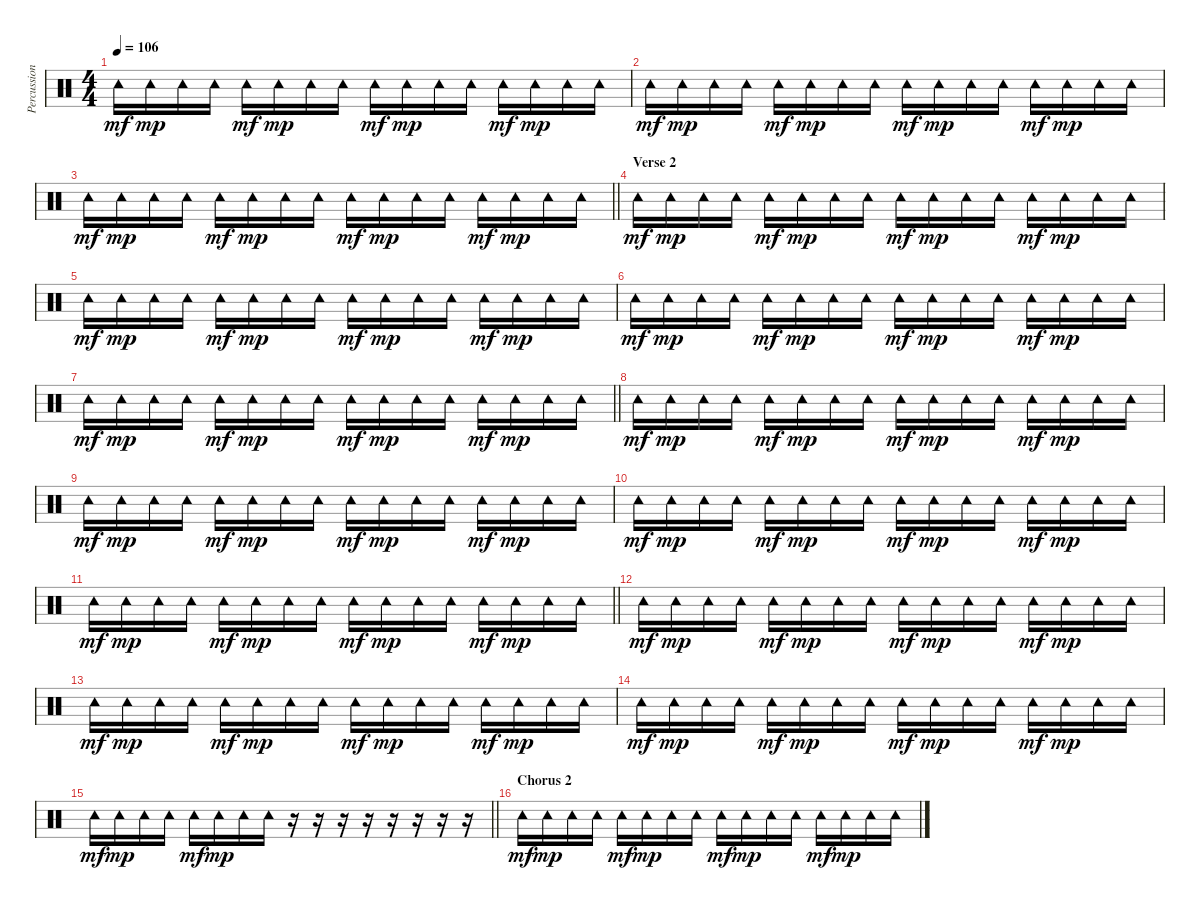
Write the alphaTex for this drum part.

\track ("Percussion (Tre Cool)" "Percussion") {instrument percussion}
\staff {score}
\articulation defaults
\ts (4 4)
\tempo 106
\clef neutral
\ks c "Tambourine (hit)".16{dy mf} "Tambourine (hit)".16{dy mp} "Tambourine (hit)".16 "Tambourine (hit)".16 "Tambourine (hit)".16{dy mf} "Tambourine (hit)".16{dy mp} "Tambourine (hit)".16 "Tambourine (hit)".16 "Tambourine (hit)".16{dy mf} "Tambourine (hit)".16{dy mp} "Tambourine (hit)".16 "Tambourine (hit)".16 "Tambourine (hit)".16{dy mf} "Tambourine (hit)".16{dy mp} "Tambourine (hit)".16 "Tambourine (hit)".16
|
"Tambourine (hit)".16{dy mf} "Tambourine (hit)".16{dy mp} "Tambourine (hit)".16 "Tambourine (hit)".16 "Tambourine (hit)".16{dy mf} "Tambourine (hit)".16{dy mp} "Tambourine (hit)".16 "Tambourine (hit)".16 "Tambourine (hit)".16{dy mf} "Tambourine (hit)".16{dy mp} "Tambourine (hit)".16 "Tambourine (hit)".16 "Tambourine (hit)".16{dy mf} "Tambourine (hit)".16{dy mp} "Tambourine (hit)".16 "Tambourine (hit)".16 |
\barLineRight lightlight "Tambourine (hit)".16{dy mf} "Tambourine (hit)".16{dy mp} "Tambourine (hit)".16 "Tambourine (hit)".16 "Tambourine (hit)".16{dy mf} "Tambourine (hit)".16{dy mp} "Tambourine (hit)".16 "Tambourine (hit)".16 "Tambourine (hit)".16{dy mf} "Tambourine (hit)".16{dy mp} "Tambourine (hit)".16 "Tambourine (hit)".16 "Tambourine (hit)".16{dy mf} "Tambourine (hit)".16{dy mp} "Tambourine (hit)".16 "Tambourine (hit)".16
|
\section ("" "Verse 2")
"Tambourine (hit)".16{dy mf} "Tambourine (hit)".16{dy mp} "Tambourine (hit)".16 "Tambourine (hit)".16 "Tambourine (hit)".16{dy mf} "Tambourine (hit)".16{dy mp} "Tambourine (hit)".16 "Tambourine (hit)".16 "Tambourine (hit)".16{dy mf} "Tambourine (hit)".16{dy mp} "Tambourine (hit)".16 "Tambourine (hit)".16 "Tambourine (hit)".16{dy mf} "Tambourine (hit)".16{dy mp} "Tambourine (hit)".16 "Tambourine (hit)".16 |
"Tambourine (hit)".16{dy mf} "Tambourine (hit)".16{dy mp} "Tambourine (hit)".16 "Tambourine (hit)".16 "Tambourine (hit)".16{dy mf} "Tambourine (hit)".16{dy mp} "Tambourine (hit)".16 "Tambourine (hit)".16 "Tambourine (hit)".16{dy mf} "Tambourine (hit)".16{dy mp} "Tambourine (hit)".16 "Tambourine (hit)".16 "Tambourine (hit)".16{dy mf} "Tambourine (hit)".16{dy mp} "Tambourine (hit)".16 "Tambourine (hit)".16 |
"Tambourine (hit)".16{dy mf} "Tambourine (hit)".16{dy mp} "Tambourine (hit)".16 "Tambourine (hit)".16 "Tambourine (hit)".16{dy mf} "Tambourine (hit)".16{dy mp} "Tambourine (hit)".16 "Tambourine (hit)".16 "Tambourine (hit)".16{dy mf} "Tambourine (hit)".16{dy mp} "Tambourine (hit)".16 "Tambourine (hit)".16 "Tambourine (hit)".16{dy mf} "Tambourine (hit)".16{dy mp} "Tambourine (hit)".16 "Tambourine (hit)".16 |
\barLineRight lightlight "Tambourine (hit)".16{dy mf} "Tambourine (hit)".16{dy mp} "Tambourine (hit)".16 "Tambourine (hit)".16 "Tambourine (hit)".16{dy mf} "Tambourine (hit)".16{dy mp} "Tambourine (hit)".16 "Tambourine (hit)".16 "Tambourine (hit)".16{dy mf} "Tambourine (hit)".16{dy mp} "Tambourine (hit)".16 "Tambourine (hit)".16 "Tambourine (hit)".16{dy mf} "Tambourine (hit)".16{dy mp} "Tambourine (hit)".16 "Tambourine (hit)".16
|
"Tambourine (hit)".16{dy mf} "Tambourine (hit)".16{dy mp} "Tambourine (hit)".16 "Tambourine (hit)".16 "Tambourine (hit)".16{dy mf} "Tambourine (hit)".16{dy mp} "Tambourine (hit)".16 "Tambourine (hit)".16 "Tambourine (hit)".16{dy mf} "Tambourine (hit)".16{dy mp} "Tambourine (hit)".16 "Tambourine (hit)".16 "Tambourine (hit)".16{dy mf} "Tambourine (hit)".16{dy mp} "Tambourine (hit)".16 "Tambourine (hit)".16 |
"Tambourine (hit)".16{dy mf} "Tambourine (hit)".16{dy mp} "Tambourine (hit)".16 "Tambourine (hit)".16 "Tambourine (hit)".16{dy mf} "Tambourine (hit)".16{dy mp} "Tambourine (hit)".16 "Tambourine (hit)".16 "Tambourine (hit)".16{dy mf} "Tambourine (hit)".16{dy mp} "Tambourine (hit)".16 "Tambourine (hit)".16 "Tambourine (hit)".16{dy mf} "Tambourine (hit)".16{dy mp} "Tambourine (hit)".16 "Tambourine (hit)".16 |
"Tambourine (hit)".16{dy mf} "Tambourine (hit)".16{dy mp} "Tambourine (hit)".16 "Tambourine (hit)".16 "Tambourine (hit)".16{dy mf} "Tambourine (hit)".16{dy mp} "Tambourine (hit)".16 "Tambourine (hit)".16 "Tambourine (hit)".16{dy mf} "Tambourine (hit)".16{dy mp} "Tambourine (hit)".16 "Tambourine (hit)".16 "Tambourine (hit)".16{dy mf} "Tambourine (hit)".16{dy mp} "Tambourine (hit)".16 "Tambourine (hit)".16 |
\barLineRight lightlight "Tambourine (hit)".16{dy mf} "Tambourine (hit)".16{dy mp} "Tambourine (hit)".16 "Tambourine (hit)".16 "Tambourine (hit)".16{dy mf} "Tambourine (hit)".16{dy mp} "Tambourine (hit)".16 "Tambourine (hit)".16 "Tambourine (hit)".16{dy mf} "Tambourine (hit)".16{dy mp} "Tambourine (hit)".16 "Tambourine (hit)".16 "Tambourine (hit)".16{dy mf} "Tambourine (hit)".16{dy mp} "Tambourine (hit)".16 "Tambourine (hit)".16
|
"Tambourine (hit)".16{dy mf} "Tambourine (hit)".16{dy mp} "Tambourine (hit)".16 "Tambourine (hit)".16 "Tambourine (hit)".16{dy mf} "Tambourine (hit)".16{dy mp} "Tambourine (hit)".16 "Tambourine (hit)".16 "Tambourine (hit)".16{dy mf} "Tambourine (hit)".16{dy mp} "Tambourine (hit)".16 "Tambourine (hit)".16 "Tambourine (hit)".16{dy mf} "Tambourine (hit)".16{dy mp} "Tambourine (hit)".16 "Tambourine (hit)".16 |
"Tambourine (hit)".16{dy mf} "Tambourine (hit)".16{dy mp} "Tambourine (hit)".16 "Tambourine (hit)".16 "Tambourine (hit)".16{dy mf} "Tambourine (hit)".16{dy mp} "Tambourine (hit)".16 "Tambourine (hit)".16 "Tambourine (hit)".16{dy mf} "Tambourine (hit)".16{dy mp} "Tambourine (hit)".16 "Tambourine (hit)".16 "Tambourine (hit)".16{dy mf} "Tambourine (hit)".16{dy mp} "Tambourine (hit)".16 "Tambourine (hit)".16 |
"Tambourine (hit)".16{dy mf} "Tambourine (hit)".16{dy mp} "Tambourine (hit)".16 "Tambourine (hit)".16 "Tambourine (hit)".16{dy mf} "Tambourine (hit)".16{dy mp} "Tambourine (hit)".16 "Tambourine (hit)".16 "Tambourine (hit)".16{dy mf} "Tambourine (hit)".16{dy mp} "Tambourine (hit)".16 "Tambourine (hit)".16 "Tambourine (hit)".16{dy mf} "Tambourine (hit)".16{dy mp} "Tambourine (hit)".16 "Tambourine (hit)".16 |
\barLineRight lightlight "Tambourine (hit)".16{dy mf} "Tambourine (hit)".16{dy mp} "Tambourine (hit)".16 "Tambourine (hit)".16 "Tambourine (hit)".16{dy mf} "Tambourine (hit)".16{dy mp} "Tambourine (hit)".16 "Tambourine (hit)".16
r.16 r.16 r.16 r.16 r.16 r.16 r.16 r.16 |
\section ("" "Chorus 2")
"Tambourine (hit)".16{dy mf} "Tambourine (hit)".16{dy mp} "Tambourine (hit)".16 "Tambourine (hit)".16 "Tambourine (hit)".16{dy mf} "Tambourine (hit)".16{dy mp} "Tambourine (hit)".16 "Tambourine (hit)".16 "Tambourine (hit)".16{dy mf} "Tambourine (hit)".16{dy mp} "Tambourine (hit)".16 "Tambourine (hit)".16 "Tambourine (hit)".16{dy mf} "Tambourine (hit)".16{dy mp} "Tambourine (hit)".16 "Tambourine (hit)".16
